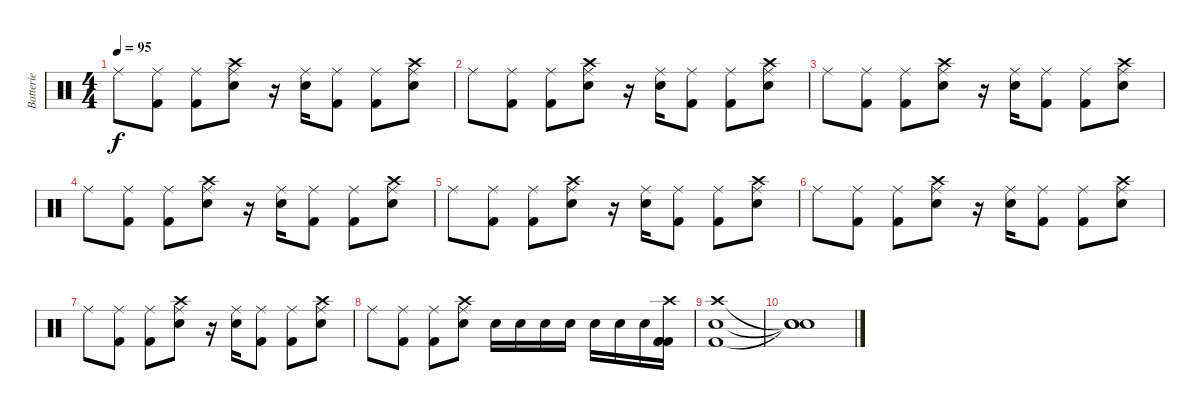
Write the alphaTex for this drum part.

\track ("Batterie" "Batterie") {instrument percussion}
\staff {score}
\articulation defaults
\ts (4 4)
\tempo 95
\clef neutral
\ks c "Ride (middle)".8{dy f}
("Ride (middle)" "Kick (hit) 2").8 ("Ride (middle)" "Kick (hit) 2").8 ("Ride (middle)" "Crash high (hit)" "Electric Snare (hit)").8 r.16 ("Ride (middle)" "Electric Snare (hit)").16 ("Ride (middle)" "Kick (hit) 2").8 ("Ride (middle)" "Kick (hit) 2").8 ("Ride (middle)" "Crash high (hit)" "Electric Snare (hit)").8 |
"Ride (middle)".8 ("Ride (middle)" "Kick (hit) 2").8 ("Ride (middle)" "Kick (hit) 2").8 ("Ride (middle)" "Crash high (hit)" "Electric Snare (hit)").8 r.16 ("Ride (middle)" "Electric Snare (hit)").16 ("Ride (middle)" "Kick (hit) 2").8 ("Ride (middle)" "Kick (hit) 2").8 ("Ride (middle)" "Crash high (hit)" "Electric Snare (hit)").8 |
"Ride (middle)".8 ("Ride (middle)" "Kick (hit) 2").8 ("Ride (middle)" "Kick (hit) 2").8 ("Ride (middle)" "Crash high (hit)" "Electric Snare (hit)").8 r.16 ("Ride (middle)" "Electric Snare (hit)").16 ("Ride (middle)" "Kick (hit) 2").8 ("Ride (middle)" "Kick (hit) 2").8 ("Ride (middle)" "Crash high (hit)" "Electric Snare (hit)").8 |
"Ride (middle)".8 ("Ride (middle)" "Kick (hit) 2").8 ("Ride (middle)" "Kick (hit) 2").8 ("Ride (middle)" "Crash high (hit)" "Electric Snare (hit)").8 r.16 ("Ride (middle)" "Electric Snare (hit)").16 ("Ride (middle)" "Kick (hit) 2").8 ("Ride (middle)" "Kick (hit) 2").8 ("Ride (middle)" "Crash high (hit)" "Electric Snare (hit)").8 |
"Ride (middle)".8 ("Ride (middle)" "Kick (hit) 2").8 ("Ride (middle)" "Kick (hit) 2").8 ("Ride (middle)" "Crash high (hit)" "Electric Snare (hit)").8 r.16 ("Ride (middle)" "Electric Snare (hit)").16 ("Ride (middle)" "Kick (hit) 2").8 ("Ride (middle)" "Kick (hit) 2").8 ("Ride (middle)" "Crash high (hit)" "Electric Snare (hit)").8 |
"Ride (middle)".8 ("Ride (middle)" "Kick (hit) 2").8 ("Ride (middle)" "Kick (hit) 2").8 ("Ride (middle)" "Crash high (hit)" "Electric Snare (hit)").8 r.16 ("Ride (middle)" "Electric Snare (hit)").16 ("Ride (middle)" "Kick (hit) 2").8 ("Ride (middle)" "Kick (hit) 2").8 ("Ride (middle)" "Crash high (hit)" "Electric Snare (hit)").8 |
"Ride (middle)".8 ("Ride (middle)" "Kick (hit) 2").8 ("Ride (middle)" "Kick (hit) 2").8 ("Ride (middle)" "Crash high (hit)" "Electric Snare (hit)").8 r.16 ("Ride (middle)" "Electric Snare (hit)").16 ("Ride (middle)" "Kick (hit) 2").8 ("Ride (middle)" "Kick (hit) 2").8 ("Ride (middle)" "Crash high (hit)" "Electric Snare (hit)").8 |
"Ride (middle)".8 ("Ride (middle)" "Kick (hit) 2").8 ("Ride (middle)" "Kick (hit) 2").8 ("Ride (middle)" "Crash high (hit)" "Electric Snare (hit)").8 "Electric Snare (hit)".16 "Electric Snare (hit)".16 "Electric Snare (hit)".16 "Electric Snare (hit)".16 "Electric Snare (hit)".16 "Electric Snare (hit)".16 "Electric Snare (hit)".16 ("Crash high (hit)" "Kick (hit) 2" "Kick (hit) 2" "Kick (hit) 2").16 |
("Crash high (hit)" "Kick (hit) 2" "Electric Snare (hit)").1 |
("Snare (hit)"{t} "Snare (hit)"{t} "Snare (hit)"{t}).1
